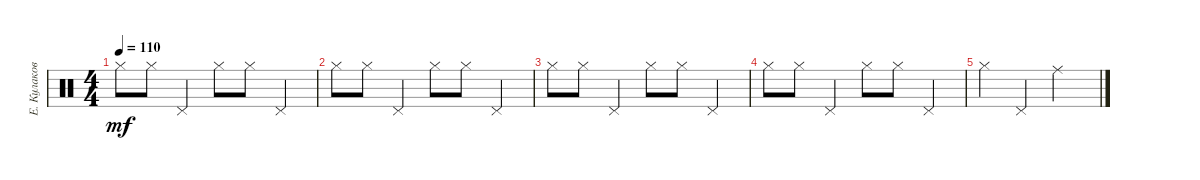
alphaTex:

\track ("Е. Кулаков" "Е. Кулаков") {instrument percussion}
\staff {score}
\articulation defaults
\ts (4 4)
\tempo 110
\clef neutral
\ks c "Hi-Hat (closed)".8{dy mf} "Hi-Hat (closed)".8 "Pedal Hi-Hat (hit)".4 "Hi-Hat (closed)".8 "Hi-Hat (closed)".8 "Pedal Hi-Hat (hit)".4
|
"Hi-Hat (closed)".8 "Hi-Hat (closed)".8 "Pedal Hi-Hat (hit)".4 "Hi-Hat (closed)".8 "Hi-Hat (closed)".8 "Pedal Hi-Hat (hit)".4 |
"Hi-Hat (closed)".8 "Hi-Hat (closed)".8 "Pedal Hi-Hat (hit)".4 "Hi-Hat (closed)".8 "Hi-Hat (closed)".8 "Pedal Hi-Hat (hit)".4 |
"Hi-Hat (closed)".8 "Hi-Hat (closed)".8 "Pedal Hi-Hat (hit)".4 "Hi-Hat (closed)".8 "Hi-Hat (closed)".8 "Pedal Hi-Hat (hit)".4 |
"Hi-Hat (closed)".4 "Pedal Hi-Hat (hit)".4 "Ride (middle)".2
